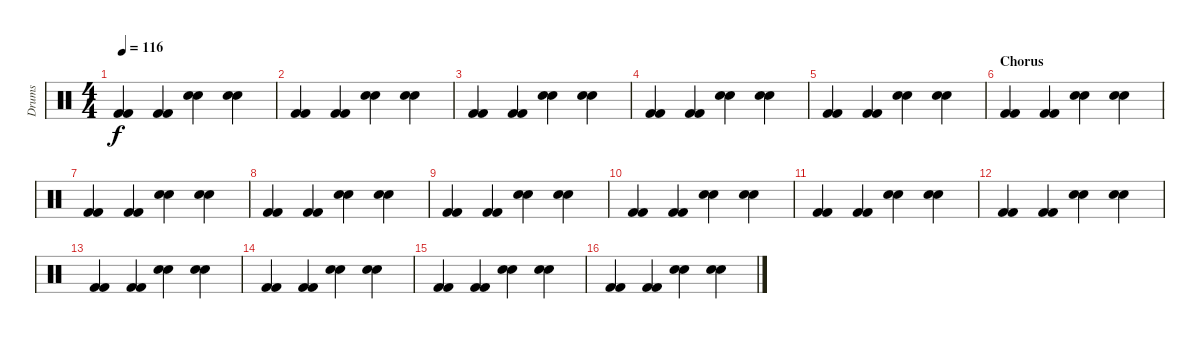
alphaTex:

\track ("Drums" "Drums") {instrument percussion}
\staff {score}
\articulation defaults
\ts (4 4)
\tempo 116
\clef neutral
\ks c
("Kick (hit) 2" "Kick (hit) 2").4{dy f} ("Kick (hit) 2" "Kick (hit) 2").4 ("Snare (hit) 2" "Snare (hit) 2").4 ("Snare (hit) 2" "Snare (hit) 2").4 |
("Kick (hit) 2" "Kick (hit) 2").4 ("Kick (hit) 2" "Kick (hit) 2").4 ("Snare (hit) 2" "Snare (hit) 2").4 ("Snare (hit) 2" "Snare (hit) 2").4 |
("Kick (hit) 2" "Kick (hit) 2").4 ("Kick (hit) 2" "Kick (hit) 2").4 ("Snare (hit) 2" "Snare (hit) 2").4 ("Snare (hit) 2" "Snare (hit) 2").4 |
("Kick (hit) 2" "Kick (hit) 2").4 ("Kick (hit) 2" "Kick (hit) 2").4 ("Snare (hit) 2" "Snare (hit) 2").4 ("Snare (hit) 2" "Snare (hit) 2").4 |
("Kick (hit) 2" "Kick (hit) 2").4 ("Kick (hit) 2" "Kick (hit) 2").4 ("Snare (hit) 2" "Snare (hit) 2").4 ("Snare (hit) 2" "Snare (hit) 2").4 |
\section ("" "Chorus")
("Kick (hit) 2" "Kick (hit) 2").4 ("Kick (hit) 2" "Kick (hit) 2").4 ("Snare (hit) 2" "Snare (hit) 2").4 ("Snare (hit) 2" "Snare (hit) 2").4 |
("Kick (hit) 2" "Kick (hit) 2").4 ("Kick (hit) 2" "Kick (hit) 2").4 ("Snare (hit) 2" "Snare (hit) 2").4 ("Snare (hit) 2" "Snare (hit) 2").4 |
("Kick (hit) 2" "Kick (hit) 2").4 ("Kick (hit) 2" "Kick (hit) 2").4 ("Snare (hit) 2" "Snare (hit) 2").4 ("Snare (hit) 2" "Snare (hit) 2").4 |
("Kick (hit) 2" "Kick (hit) 2").4 ("Kick (hit) 2" "Kick (hit) 2").4 ("Snare (hit) 2" "Snare (hit) 2").4 ("Snare (hit) 2" "Snare (hit) 2").4 |
("Kick (hit) 2" "Kick (hit) 2").4 ("Kick (hit) 2" "Kick (hit) 2").4 ("Snare (hit) 2" "Snare (hit) 2").4 ("Snare (hit) 2" "Snare (hit) 2").4 |
("Kick (hit) 2" "Kick (hit) 2").4 ("Kick (hit) 2" "Kick (hit) 2").4 ("Snare (hit) 2" "Snare (hit) 2").4 ("Snare (hit) 2" "Snare (hit) 2").4 |
("Kick (hit) 2" "Kick (hit) 2").4 ("Kick (hit) 2" "Kick (hit) 2").4 ("Snare (hit) 2" "Snare (hit) 2").4 ("Snare (hit) 2" "Snare (hit) 2").4 |
("Kick (hit) 2" "Kick (hit) 2").4 ("Kick (hit) 2" "Kick (hit) 2").4 ("Snare (hit) 2" "Snare (hit) 2").4 ("Snare (hit) 2" "Snare (hit) 2").4 |
("Kick (hit) 2" "Kick (hit) 2").4 ("Kick (hit) 2" "Kick (hit) 2").4 ("Snare (hit) 2" "Snare (hit) 2").4 ("Snare (hit) 2" "Snare (hit) 2").4 |
("Kick (hit) 2" "Kick (hit) 2").4 ("Kick (hit) 2" "Kick (hit) 2").4 ("Snare (hit) 2" "Snare (hit) 2").4 ("Snare (hit) 2" "Snare (hit) 2").4 |
("Kick (hit) 2" "Kick (hit) 2").4 ("Kick (hit) 2" "Kick (hit) 2").4 ("Snare (hit) 2" "Snare (hit) 2").4 ("Snare (hit) 2" "Snare (hit) 2").4
